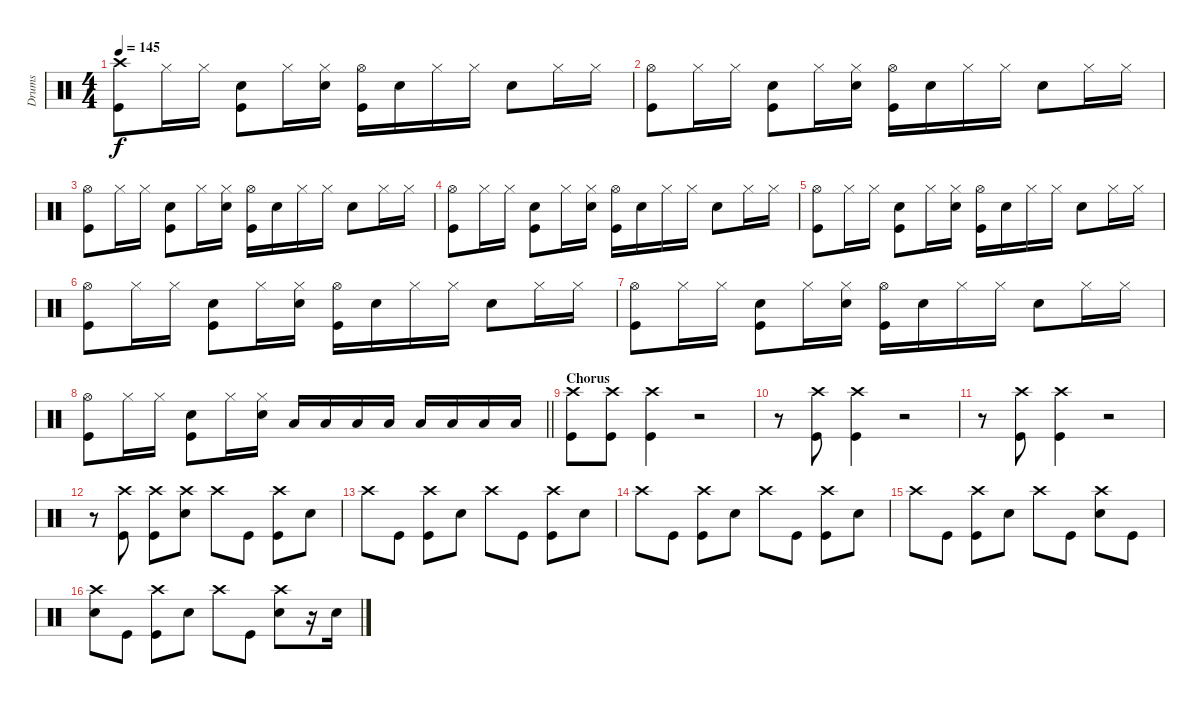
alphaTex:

\track ("Drums" "Drums") {instrument percussion}
\staff {score}
\articulation defaults
\ts (4 4)
\tempo 145
\clef neutral
\ks c
("Crash high (hit)" "Kick (hit)").8{dy f} "Hi-Hat (closed)".16 "Hi-Hat (closed)".16 ("Electric Snare (hit)" "Kick (hit)").8 "Hi-Hat (closed)".16 ("Hi-Hat (closed)" "Electric Snare (hit)").16 ("Hi-Hat (open)" "Kick (hit)").16 "Electric Snare (hit)".16 "Hi-Hat (closed)".16 "Hi-Hat (closed)".16 "Electric Snare (hit)".8 "Hi-Hat (closed)".16 "Hi-Hat (closed)".16 |
("Hi-Hat (open)" "Kick (hit)").8 "Hi-Hat (closed)".16 "Hi-Hat (closed)".16 ("Electric Snare (hit)" "Kick (hit)").8 "Hi-Hat (closed)".16 ("Hi-Hat (closed)" "Electric Snare (hit)").16 ("Hi-Hat (open)" "Kick (hit)").16 "Electric Snare (hit)".16 "Hi-Hat (closed)".16 "Hi-Hat (closed)".16 "Electric Snare (hit)".8 "Hi-Hat (closed)".16 "Hi-Hat (closed)".16 |
("Hi-Hat (open)" "Kick (hit)").8 "Hi-Hat (closed)".16 "Hi-Hat (closed)".16 ("Electric Snare (hit)" "Kick (hit)").8 "Hi-Hat (closed)".16 ("Hi-Hat (closed)" "Electric Snare (hit)").16 ("Hi-Hat (open)" "Kick (hit)").16 "Electric Snare (hit)".16 "Hi-Hat (closed)".16 "Hi-Hat (closed)".16 "Electric Snare (hit)".8 "Hi-Hat (closed)".16 "Hi-Hat (closed)".16 |
("Hi-Hat (open)" "Kick (hit)").8 "Hi-Hat (closed)".16 "Hi-Hat (closed)".16 ("Electric Snare (hit)" "Kick (hit)").8 "Hi-Hat (closed)".16 ("Hi-Hat (closed)" "Electric Snare (hit)").16 ("Hi-Hat (open)" "Kick (hit)").16 "Electric Snare (hit)".16 "Hi-Hat (closed)".16 "Hi-Hat (closed)".16 "Electric Snare (hit)".8 "Hi-Hat (closed)".16 "Hi-Hat (closed)".16 |
("Hi-Hat (open)" "Kick (hit)").8 "Hi-Hat (closed)".16 "Hi-Hat (closed)".16 ("Electric Snare (hit)" "Kick (hit)").8 "Hi-Hat (closed)".16 ("Hi-Hat (closed)" "Electric Snare (hit)").16 ("Hi-Hat (open)" "Kick (hit)").16 "Electric Snare (hit)".16 "Hi-Hat (closed)".16 "Hi-Hat (closed)".16 "Electric Snare (hit)".8 "Hi-Hat (closed)".16 "Hi-Hat (closed)".16 |
("Hi-Hat (open)" "Kick (hit)").8 "Hi-Hat (closed)".16 "Hi-Hat (closed)".16 ("Electric Snare (hit)" "Kick (hit)").8 "Hi-Hat (closed)".16 ("Hi-Hat (closed)" "Electric Snare (hit)").16 ("Hi-Hat (open)" "Kick (hit)").16 "Electric Snare (hit)".16 "Hi-Hat (closed)".16 "Hi-Hat (closed)".16 "Electric Snare (hit)".8 "Hi-Hat (closed)".16 "Hi-Hat (closed)".16 |
("Hi-Hat (open)" "Kick (hit)").8 "Hi-Hat (closed)".16 "Hi-Hat (closed)".16 ("Electric Snare (hit)" "Kick (hit)").8 "Hi-Hat (closed)".16 ("Hi-Hat (closed)" "Electric Snare (hit)").16 ("Hi-Hat (open)" "Kick (hit)").16 "Electric Snare (hit)".16 "Hi-Hat (closed)".16 "Hi-Hat (closed)".16 "Electric Snare (hit)".8 "Hi-Hat (closed)".16 "Hi-Hat (closed)".16 |
\barLineRight lightlight
("Hi-Hat (open)" "Kick (hit)").8 "Hi-Hat (closed)".16 "Hi-Hat (closed)".16 ("Electric Snare (hit)" "Kick (hit)").8 "Hi-Hat (closed)".16 ("Hi-Hat (closed)" "Electric Snare (hit)").16 "Low Tom (hit)".16 "Low Tom (hit)".16 "Low Tom (hit)".16 "Low Tom (hit)".16 "Low Tom (hit)".16 "Low Tom (hit)".16 "Low Tom (hit)".16 "Low Tom (hit)".16 |
\section ("" "Chorus")
("Crash high (hit)" "Kick (hit)").8 ("Crash high (hit)" "Kick (hit)").8 ("Crash high (hit)" "Kick (hit)").4 r.2 |
r.8 ("Crash high (hit)" "Kick (hit)").8 ("Crash high (hit)" "Kick (hit)").4 r.2 |
r.8 ("Crash high (hit)" "Kick (hit)").8 ("Crash high (hit)" "Kick (hit)").4 r.2 |
r.8 ("Crash high (hit)" "Kick (hit)").8 ("Crash high (hit)" "Kick (hit)").8 ("Crash high (hit)" "Electric Snare (hit)").8 "Crash high (hit)".8 "Kick (hit)".8 ("Crash high (hit)" "Kick (hit)").8 "Electric Snare (hit)".8 |
"Crash high (hit)".8 "Kick (hit)".8 ("Crash high (hit)" "Kick (hit)").8 "Electric Snare (hit)".8 "Crash high (hit)".8 "Kick (hit)".8 ("Crash high (hit)" "Kick (hit)").8 "Electric Snare (hit)".8 |
"Crash high (hit)".8 "Kick (hit)".8 ("Crash high (hit)" "Kick (hit)").8 "Electric Snare (hit)".8 "Crash high (hit)".8 "Kick (hit)".8 ("Crash high (hit)" "Kick (hit)").8 "Electric Snare (hit)".8 |
"Crash high (hit)".8 "Kick (hit)".8 ("Crash high (hit)" "Kick (hit)").8 "Electric Snare (hit)".8 "Crash high (hit)".8 "Kick (hit)".8 ("Crash high (hit)" "Electric Snare (hit)").8 "Kick (hit)".8 |
("Crash high (hit)" "Electric Snare (hit)").8 "Kick (hit)".8 ("Crash high (hit)" "Kick (hit)").8 "Electric Snare (hit)".8 "Crash high (hit)".8 "Kick (hit)".8 ("Crash high (hit)" "Electric Snare (hit)").8 r.16 "Electric Snare (hit)".16
